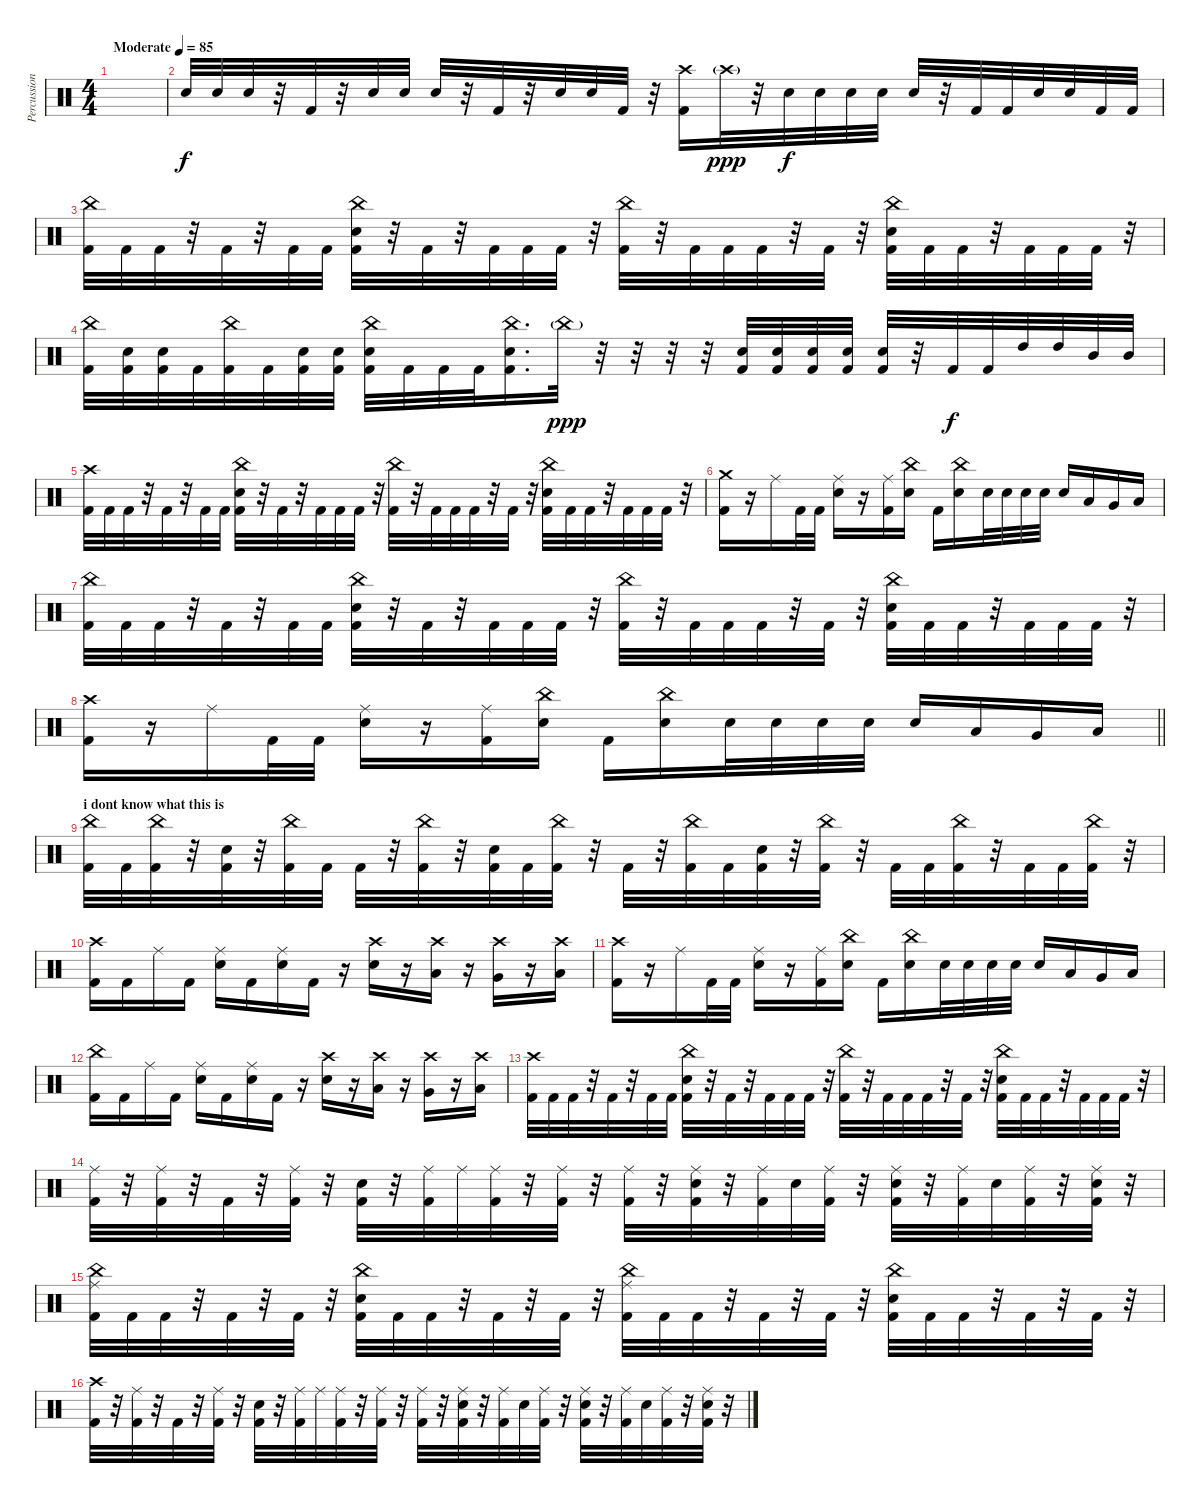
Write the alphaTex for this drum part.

\track ("Percussion" "Percussion") {instrument percussion}
\staff {score}
\articulation defaults
\ts (4 4)
\tempo (85 "Moderate")
\clef neutral
\ks c
|
"Snare (hit) 2".32 "Snare (hit) 2".32 "Snare (hit) 2".32 r.32 "Kick (hit) 2".32 r.32 "Snare (hit) 2".32 "Snare (hit) 2".32 "Snare (hit) 2".32 r.32 "Kick (hit) 2".32 r.32 "Snare (hit) 2".32 "Snare (hit) 2".32 "Kick (hit) 2".32 r.32 ("Crash high (hit)" "Kick (hit) 2").16 "Crash high (hit)"{g}.32{dy ppp} r.32 "Snare (hit) 2".32{dy f} "Snare (hit) 2".32 "Snare (hit) 2".32 "Snare (hit) 2".32 "Snare (hit) 2".32 r.32 "Kick (hit) 2".32 "Kick (hit) 2".32 "Snare (hit) 2".32 "Snare (hit) 2".32 "Kick (hit) 2".32 "Kick (hit) 2".32 |
("Kick (hit) 2" "China (hit)").32 "Kick (hit) 2".32 "Kick (hit) 2".32 r.32 "Kick (hit) 2".32 r.32 "Kick (hit) 2".32 "Kick (hit) 2".32 ("Kick (hit) 2" "Snare (hit) 2" "China (hit)").32 r.32 "Kick (hit) 2".32 r.32 "Kick (hit) 2".32 "Kick (hit) 2".32 "Kick (hit) 2".32 r.32 ("Kick (hit) 2" "China (hit)").32 r.32 "Kick (hit) 2".32 "Kick (hit) 2".32 "Kick (hit) 2".32 r.32 "Kick (hit) 2".32 r.32 ("Kick (hit) 2" "Snare (hit) 2" "China (hit)").32 "Kick (hit) 2".32 "Kick (hit) 2".32 r.32 "Kick (hit) 2".32 "Kick (hit) 2".32 "Kick (hit) 2".32 r.32 |
("China (hit)" "Kick (hit) 2").32 ("Snare (hit) 2" "Kick (hit) 2").32 ("Snare (hit) 2" "Kick (hit) 2").32 "Kick (hit) 2".32 ("China (hit)" "Kick (hit) 2").32 "Kick (hit) 2".32 ("Snare (hit) 2" "Kick (hit) 2").32 ("Snare (hit) 2" "Kick (hit) 2").32 ("Snare (hit) 2" "China (hit)" "Kick (hit) 2").32 "Kick (hit) 2".32 "Kick (hit) 2".32 "Kick (hit) 2".32 ("Snare (hit) 2" "China (hit)" "Kick (hit) 2").16{d} "China (hit)"{g}.32{dy ppp} r.32 r.32 r.32 r.32 ("Snare (hit) 2" "Kick (hit) 2").32 ("Snare (hit) 2" "Kick (hit) 2").32 ("Snare (hit) 2" "Kick (hit) 2").32 ("Snare (hit) 2" "Kick (hit) 2").32 ("Snare (hit) 2" "Kick (hit) 2").32 r.32 "Kick (hit) 2".32{dy f} "Kick (hit) 2".32 "High Tom (hit)".32 "High Tom (hit)".32 "Mid Tom (hit)".32 "Mid Tom (hit)".32 |
("Kick (hit) 2" "Crash high (hit)").32 "Kick (hit) 2".32 "Kick (hit) 2".32 r.32 "Kick (hit) 2".32 r.32 "Kick (hit) 2".32 "Kick (hit) 2".32 ("Kick (hit) 2" "Snare (hit) 2" "China (hit)").32 r.32 "Kick (hit) 2".32 r.32 "Kick (hit) 2".32 "Kick (hit) 2".32 "Kick (hit) 2".32 r.32 ("Kick (hit) 2" "China (hit)").32 r.32 "Kick (hit) 2".32 "Kick (hit) 2".32 "Kick (hit) 2".32 r.32 "Kick (hit) 2".32 r.32 ("Kick (hit) 2" "Snare (hit) 2" "China (hit)").32 "Kick (hit) 2".32 "Kick (hit) 2".32 r.32 "Kick (hit) 2".32 "Kick (hit) 2".32 "Kick (hit) 2".32 r.32 |
("Kick (hit) 2" "Crash medium (hit)").16 r.16 "Ride (middle)".16 "Kick (hit) 2".32 "Kick (hit) 2".32 ("Snare (hit) 2" "Ride (middle)").16 r.16 ("Ride (middle)" "Kick (hit) 2").16 ("China (hit)" "Snare (hit) 2").16 "Kick (hit) 2".16 ("China (hit)" "Snare (hit) 2").16 "Snare (hit) 2".32 "Snare (hit) 2".32 "Snare (hit) 2".32 "Snare (hit) 2".32 "Snare (hit) 2".16 "Low Tom (hit)".16 "Very Low Tom (hit)".16 "Low Floor Tom (hit)".16 |
("Kick (hit) 2" "China (hit)").32 "Kick (hit) 2".32 "Kick (hit) 2".32 r.32 "Kick (hit) 2".32 r.32 "Kick (hit) 2".32 "Kick (hit) 2".32 ("Kick (hit) 2" "Snare (hit) 2" "China (hit)").32 r.32 "Kick (hit) 2".32 r.32 "Kick (hit) 2".32 "Kick (hit) 2".32 "Kick (hit) 2".32 r.32 ("Kick (hit) 2" "China (hit)").32 r.32 "Kick (hit) 2".32 "Kick (hit) 2".32 "Kick (hit) 2".32 r.32 "Kick (hit) 2".32 r.32 ("Kick (hit) 2" "Snare (hit) 2" "China (hit)").32 "Kick (hit) 2".32 "Kick (hit) 2".32 r.32 "Kick (hit) 2".32 "Kick (hit) 2".32 "Kick (hit) 2".32 r.32 |
\barLineRight lightlight
("Kick (hit) 2" "Crash high (hit)").16 r.16 "Ride (middle)".16 "Kick (hit) 2".32 "Kick (hit) 2".32 ("Snare (hit) 2" "Ride (middle)").16 r.16 ("Ride (middle)" "Kick (hit) 2").16 ("China (hit)" "Snare (hit) 2").16 "Kick (hit) 2".16 ("China (hit)" "Snare (hit) 2").16 "Snare (hit) 2".32 "Snare (hit) 2".32 "Snare (hit) 2".32 "Snare (hit) 2".32 "Snare (hit) 2".16 "Low Tom (hit)".16 "Very Low Tom (hit)".16 "Low Floor Tom (hit)".16 |
\section ("" "i dont know what this is")
("Kick (hit) 2" "China (hit)").32 "Kick (hit) 2".32 ("Kick (hit) 2" "China (hit)").32 r.32 ("Kick (hit) 2" "Snare (hit) 2").32 r.32 ("Kick (hit) 2" "China (hit)").32 "Kick (hit) 2".32 "Kick (hit) 2".32 r.32 ("Kick (hit) 2" "China (hit)").32 r.32 ("Kick (hit) 2" "Snare (hit) 2").32 "Kick (hit) 2".32 ("Kick (hit) 2" "China (hit)").32 r.32 "Kick (hit) 2".32 r.32 ("Kick (hit) 2" "China (hit)").32 "Kick (hit) 2".32 ("Kick (hit) 2" "Snare (hit) 2").32 r.32 ("Kick (hit) 2" "China (hit)").32 r.32 "Kick (hit) 2".32 "Kick (hit) 2".32 ("Kick (hit) 2" "China (hit)").32 r.32 "Kick (hit) 2".32 "Kick (hit) 2".32 ("Kick (hit) 2" "China (hit)").32 r.32 |
("Kick (hit) 2" "Crash high (hit)").16 "Kick (hit) 2".16 "Ride (middle)".16 "Kick (hit) 2".16 ("Snare (hit) 2" "Ride (middle)").16 "Kick (hit) 2".16 ("Snare (hit) 2" "Ride (middle)").16 "Kick (hit) 2".16 r.16 ("Crash high (hit)" "Snare (hit) 2").16 r.16 ("Crash high (hit)" "Low Tom (hit)").16 r.16 ("Crash high (hit)" "Very Low Tom (hit)").16 r.16 ("Crash high (hit)" "Low Floor Tom (hit)").16 |
("Kick (hit) 2" "Crash high (hit)").16 r.16 "Ride (middle)".16 "Kick (hit) 2".32 "Kick (hit) 2".32 ("Snare (hit) 2" "Ride (middle)").16 r.16 ("Ride (middle)" "Kick (hit) 2").16 ("China (hit)" "Snare (hit) 2").16 "Kick (hit) 2".16 ("China (hit)" "Snare (hit) 2").16 "Snare (hit) 2".32 "Snare (hit) 2".32 "Snare (hit) 2".32 "Snare (hit) 2".32 "Snare (hit) 2".16 "Low Tom (hit)".16 "Very Low Tom (hit)".16 "Low Floor Tom (hit)".16 |
("Kick (hit) 2" "China (hit)").16 "Kick (hit) 2".16 "Ride (middle)".16 "Kick (hit) 2".16 ("Snare (hit) 2" "Ride (middle)").16 "Kick (hit) 2".16 ("Snare (hit) 2" "Ride (middle)").16 "Kick (hit) 2".16 r.16 ("Crash high (hit)" "Snare (hit) 2").16 r.16 ("Crash high (hit)" "Low Tom (hit)").16 r.16 ("Crash high (hit)" "Very Low Tom (hit)").16 r.16 ("Crash high (hit)" "Low Floor Tom (hit)").16 |
("Kick (hit) 2" "Crash high (hit)").32 "Kick (hit) 2".32 "Kick (hit) 2".32 r.32 "Kick (hit) 2".32 r.32 "Kick (hit) 2".32 "Kick (hit) 2".32 ("Kick (hit) 2" "Snare (hit) 2" "China (hit)").32 r.32 "Kick (hit) 2".32 r.32 "Kick (hit) 2".32 "Kick (hit) 2".32 "Kick (hit) 2".32 r.32 ("Kick (hit) 2" "China (hit)").32 r.32 "Kick (hit) 2".32 "Kick (hit) 2".32 "Kick (hit) 2".32 r.32 "Kick (hit) 2".32 r.32 ("Kick (hit) 2" "Snare (hit) 2" "China (hit)").32 "Kick (hit) 2".32 "Kick (hit) 2".32 r.32 "Kick (hit) 2".32 "Kick (hit) 2".32 "Kick (hit) 2".32 r.32 |
("Kick (hit) 2" "Ride (middle)").32 r.32 ("Kick (hit) 2" "Ride (middle)").32 r.32 "Kick (hit) 2".32 r.32 ("Kick (hit) 2" "Ride (middle)").32 r.32 ("Kick (hit) 2" "Snare (hit) 2").32 r.32 ("Kick (hit) 2" "Ride (middle)").32 "Ride (middle)".32 ("Kick (hit) 2" "Ride (middle)").32 r.32 ("Kick (hit) 2" "Ride (middle)").32 r.32 ("Kick (hit) 2" "Ride (middle)").32 r.32 ("Kick (hit) 2" "Snare (hit) 2" "Ride (middle)").32 r.32 ("Kick (hit) 2" "Ride (middle)").32 "Snare (hit) 2".32 ("Kick (hit) 2" "Ride (middle)").32 r.32 ("Kick (hit) 2" "Snare (hit) 2" "Ride (middle)").32 r.32 ("Kick (hit) 2" "Ride (middle)").32 "Snare (hit) 2".32 ("Kick (hit) 2" "Ride (middle)").32 r.32 ("Kick (hit) 2" "Snare (hit) 2" "Ride (middle)").32 r.32 |
("Kick (hit) 2" "Ride (middle)" "China (hit)").32 "Kick (hit) 2".32 "Kick (hit) 2".32 r.32 "Kick (hit) 2".32 r.32 "Kick (hit) 2".32 r.32 ("Kick (hit) 2" "Snare (hit) 2" "China (hit)").32 "Kick (hit) 2".32 "Kick (hit) 2".32 r.32 "Kick (hit) 2".32 r.32 "Kick (hit) 2".32 r.32 ("Kick (hit) 2" "Ride (middle)" "China (hit)").32 "Kick (hit) 2".32 "Kick (hit) 2".32 r.32 "Kick (hit) 2".32 r.32 "Kick (hit) 2".32 r.32 ("Kick (hit) 2" "Snare (hit) 2" "China (hit)").32 "Kick (hit) 2".32 "Kick (hit) 2".32 r.32 "Kick (hit) 2".32 r.32 "Kick (hit) 2".32 r.32 |
("Kick (hit) 2" "Crash high (hit)").32 r.32 ("Kick (hit) 2" "Ride (middle)").32 r.32 "Kick (hit) 2".32 r.32 ("Kick (hit) 2" "Ride (middle)").32 r.32 ("Kick (hit) 2" "Snare (hit) 2").32 r.32 ("Kick (hit) 2" "Ride (middle)").32 "Ride (middle)".32 ("Kick (hit) 2" "Ride (middle)").32 r.32 ("Kick (hit) 2" "Ride (middle)").32 r.32 ("Kick (hit) 2" "Ride (middle)").32 r.32 ("Kick (hit) 2" "Snare (hit) 2" "Ride (middle)").32 r.32 ("Kick (hit) 2" "Ride (middle)").32 "Snare (hit) 2".32 ("Kick (hit) 2" "Ride (middle)").32 r.32 ("Kick (hit) 2" "Snare (hit) 2" "Ride (middle)").32 r.32 ("Kick (hit) 2" "Ride (middle)").32 "Snare (hit) 2".32 ("Kick (hit) 2" "Ride (middle)").32 r.32 ("Kick (hit) 2" "Snare (hit) 2" "Ride (middle)").32 r.32
